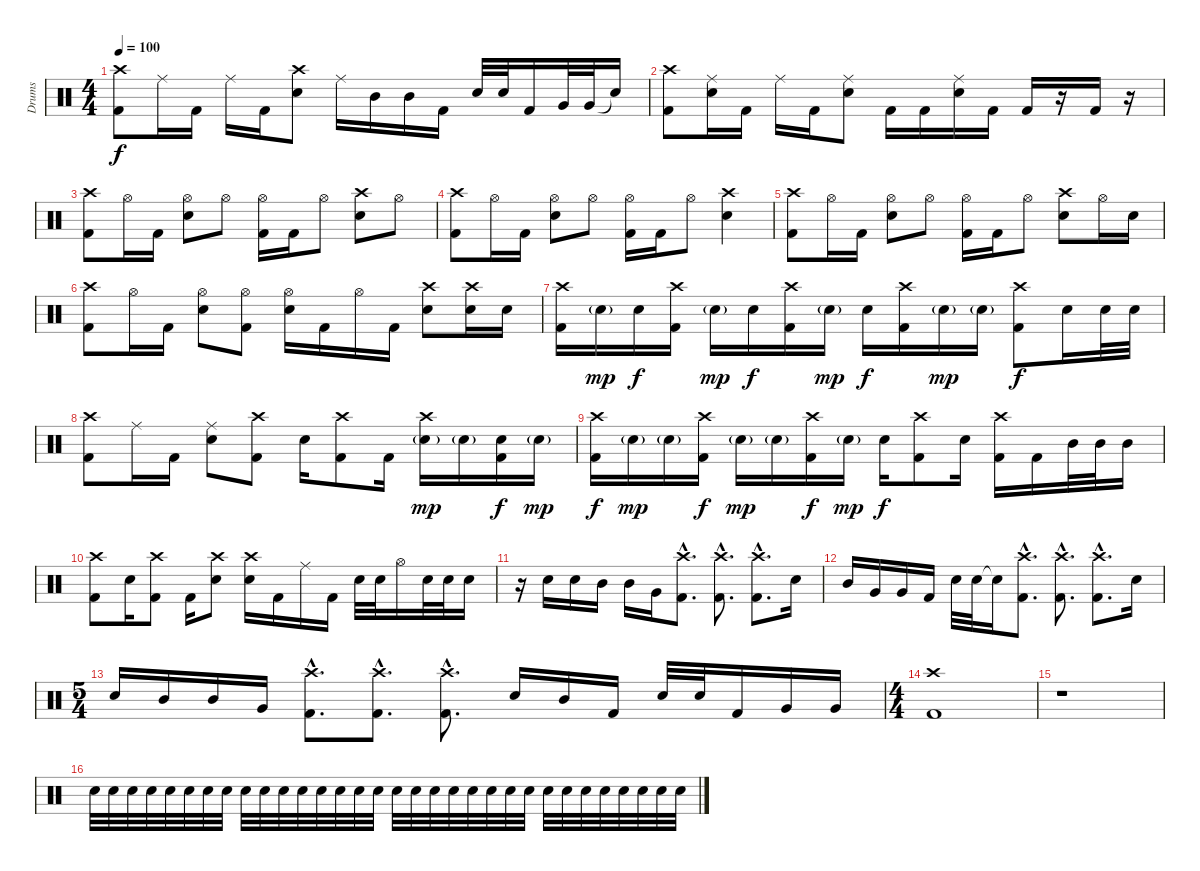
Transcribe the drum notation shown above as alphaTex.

\track ("Drums" "Drums") {instrument percussion}
\staff {score}
\articulation defaults
\ts (4 4)
\tempo 100
\clef neutral
\ks c
("Crash high (hit)" "Kick (hit) 2").8{dy f} "Ride (middle)".16 "Kick (hit) 2".16 "Ride (middle)".16 "Kick (hit) 2".16 ("Crash high (hit)" "Snare (hit) 2").8 "Ride (middle)".16 "Mid Tom (hit)".16 "Mid Tom (hit)".16 "Kick (hit) 2".16 "Snare (hit) 2".32 "Snare (hit) 2".32 "Kick (hit) 2".16 "Very Low Tom (hit)".32 "Very Low Tom (hit)".32 "Snare (hit)"{t}.16 |
("Crash high (hit)" "Kick (hit) 2").8 ("Ride (middle)" "Snare (hit) 2").16 "Kick (hit) 2".16 "Ride (middle)".16 "Kick (hit) 2".16 ("Ride (middle)" "Snare (hit) 2").8 "Kick (hit) 2".16 "Kick (hit) 2".16 ("Ride (middle)" "Snare (hit) 2").16 "Kick (hit) 2".16 "Kick (hit) 2".16 r.16 "Kick (hit) 2".16 r.16 |
("Crash high (hit)" "Kick (hit) 2").8 "Hi-Hat (open)".16 "Kick (hit) 2".16 ("Hi-Hat (open)" "Snare (hit) 2").8 "Hi-Hat (open)".8 ("Hi-Hat (open)" "Kick (hit) 2").16 "Kick (hit) 2".16 "Hi-Hat (open)".8 ("Crash high (hit)" "Snare (hit) 2").8 "Hi-Hat (open)".8 |
("Crash high (hit)" "Kick (hit) 2").8 "Hi-Hat (open)".16 "Kick (hit) 2".16 ("Hi-Hat (open)" "Snare (hit) 2").8 "Hi-Hat (open)".8 ("Hi-Hat (open)" "Kick (hit) 2").16 "Kick (hit) 2".16 "Hi-Hat (open)".8 ("Crash high (hit)" "Snare (hit) 2").4 |
("Crash high (hit)" "Kick (hit) 2").8 "Hi-Hat (open)".16 "Kick (hit) 2".16 ("Hi-Hat (open)" "Snare (hit) 2").8 "Hi-Hat (open)".8 ("Hi-Hat (open)" "Kick (hit) 2").16 "Kick (hit) 2".16 "Hi-Hat (open)".8 ("Crash high (hit)" "Snare (hit) 2").8 "Hi-Hat (open)".16 "Snare (hit) 2".16 |
("Crash high (hit)" "Kick (hit) 2").8 "Hi-Hat (open)".16 "Kick (hit) 2".16 ("Hi-Hat (open)" "Snare (hit) 2").8 ("Hi-Hat (open)" "Kick (hit) 2").8 ("Hi-Hat (open)" "Snare (hit) 2").16 "Kick (hit) 2".16 "Hi-Hat (open)".16 "Kick (hit) 2".16 ("Crash high (hit)" "Snare (hit) 2").8 ("Crash high (hit)" "Snare (hit) 2").16 "Snare (hit) 2".16 |
("Crash high (hit)" "Kick (hit) 2").16 "Snare (hit) 2"{g}.16{dy mp} "Snare (hit) 2".16{dy f} ("Crash high (hit)" "Kick (hit) 2").16 "Snare (hit) 2"{g}.16{dy mp} "Snare (hit) 2".16{dy f} ("Crash high (hit)" "Kick (hit) 2").16 "Snare (hit) 2"{g}.16{dy mp} "Snare (hit) 2".16{dy f} ("Crash high (hit)" "Kick (hit) 2").16 "Snare (hit) 2"{g}.16{dy mp} "Snare (hit) 2"{g}.16 ("Crash high (hit)" "Kick (hit) 2").8{dy f} "Snare (hit) 2".16 "Snare (hit) 2".32 "Snare (hit) 2".32 |
("Crash high (hit)" "Kick (hit) 2").8 "Ride (middle)".16 "Kick (hit) 2".16 ("Ride (middle)" "Snare (hit) 2").8 ("Crash high (hit)" "Kick (hit) 2").8 "Snare (hit) 2".16 ("Crash high (hit)" "Kick (hit) 2").8 "Kick (hit) 2".16 ("Crash high (hit)" "Snare (hit) 2"{g}).16{dy mp} "Snare (hit) 2"{g}.16 ("Snare (hit) 2" "Kick (hit) 2").16{dy f} "Snare (hit) 2"{g}.16{dy mp} |
("Crash high (hit)" "Kick (hit) 2").16{dy f} "Snare (hit) 2"{g}.16{dy mp} "Snare (hit) 2"{g}.16 ("Crash high (hit)" "Kick (hit) 2").16{dy f} "Snare (hit) 2"{g}.16{dy mp} "Snare (hit) 2"{g}.16 ("Crash high (hit)" "Kick (hit) 2").16{dy f} "Snare (hit) 2"{g}.16{dy mp} "Snare (hit) 2".16{dy f} ("Crash high (hit)" "Kick (hit) 2").8 "Snare (hit) 2".16 ("Crash high (hit)" "Kick (hit) 2").16 "Kick (hit) 2".16 "Mid Tom (hit)".32 "Mid Tom (hit)".32 "Mid Tom (hit)".16 |
("Crash high (hit)" "Kick (hit) 2").8 "Snare (hit) 2".16 ("Crash high (hit)" "Kick (hit) 2").8 "Kick (hit) 2".16 ("Crash high (hit)" "Snare (hit) 2").8 ("Crash high (hit)" "Snare (hit) 2").16 "Kick (hit) 2".16 "Ride (middle)".16 "Kick (hit) 2".16 "Snare (hit) 2".32 "Snare (hit) 2".32 "Hi-Hat (open)".16 "Snare (hit) 2".32 "Snare (hit) 2".32 "Snare (hit) 2".16 |
r.16 "Snare (hit) 2".16 "Snare (hit) 2".16 "Mid Tom (hit)".16 "Mid Tom (hit)".16 "Very Low Tom (hit)".16 ("Crash high (hit)"{hac} "Kick (hit) 2"{hac}).8{d} ("Crash high (hit)"{hac} "Kick (hit) 2"{hac}).8{d} ("Crash high (hit)"{hac} "Kick (hit) 2"{hac}).8{d} "Snare (hit) 2".16 |
"Mid Tom (hit)".16 "Very Low Tom (hit)".16 "Very Low Tom (hit)".16 "Kick (hit) 2".16 "Snare (hit) 2".32 "Snare (hit) 2".32 "Snare (hit)"{t}.16 ("Crash high (hit)"{hac} "Kick (hit) 2"{hac}).8{d} ("Crash high (hit)"{hac} "Kick (hit) 2"{hac}).8{d} ("Crash high (hit)"{hac} "Kick (hit) 2"{hac}).8{d} "Snare (hit) 2".16 |
\ts (5 4)
"Snare (hit) 2".16 "Mid Tom (hit)".16 "Mid Tom (hit)".16 "Very Low Tom (hit)".16 ("Crash high (hit)"{hac} "Kick (hit) 2"{hac}).8{d} ("Crash high (hit)"{hac} "Kick (hit) 2"{hac}).8{d} ("Crash high (hit)"{hac} "Kick (hit) 2"{hac}).8{d} "Snare (hit) 2".16 "Mid Tom (hit)".16 "Kick (hit) 2".16 "Snare (hit) 2".32 "Snare (hit) 2".32 "Kick (hit) 2".16 "Very Low Tom (hit)".16 "Very Low Tom (hit)".16 |
\ts (4 4)
("Crash high (hit)" "Kick (hit) 2").1 |
r.1 |
"Electric Snare (hit)".32{volume 3} "Electric Snare (hit)".32{volume 8} "Electric Snare (hit)".32 "Electric Snare (hit)".32 "Electric Snare (hit)".32 "Electric Snare (hit)".32 "Electric Snare (hit)".32 "Electric Snare (hit)".32 "Electric Snare (hit)".32 "Electric Snare (hit)".32 "Electric Snare (hit)".32 "Electric Snare (hit)".32 "Electric Snare (hit)".32 "Electric Snare (hit)".32 "Electric Snare (hit)".32 "Electric Snare (hit)".32 "Electric Snare (hit)".32 "Electric Snare (hit)".32 "Electric Snare (hit)".32 "Electric Snare (hit)".32 "Electric Snare (hit)".32 "Electric Snare (hit)".32 "Electric Snare (hit)".32 "Electric Snare (hit)".32 "Electric Snare (hit)".32 "Electric Snare (hit)".32 "Electric Snare (hit)".32 "Electric Snare (hit)".32 "Electric Snare (hit)".32 "Electric Snare (hit)".32 "Electric Snare (hit)".32 "Electric Snare (hit)".32
